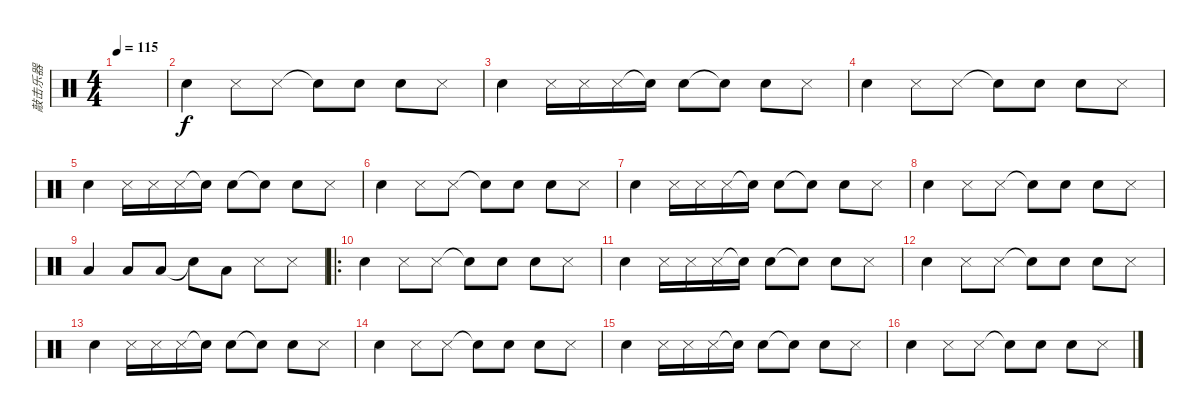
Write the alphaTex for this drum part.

\track ("敲击乐器" "敲击乐器") {instrument percussion}
\staff {score}
\articulation defaults
\ts (4 4)
\tempo 115
\clef neutral
\ks c
|
"Hand Clap (hit)".4 "Snare (side stick) 3".8 "Snare (side stick) 3".8 "Snare (hit)"{t}.8 "Hand Clap (hit)".8 "Hand Clap (hit)".8 "Snare (side stick) 3".8 |
"Hand Clap (hit)".4 "Snare (side stick) 3".16 "Snare (side stick) 3".16 "Snare (side stick) 3".16 "Snare (hit)"{t}.16 "Hand Clap (hit)".8 "Snare (hit)"{t}.8 "Hand Clap (hit)".8 "Snare (side stick) 3".8 |
"Hand Clap (hit)".4 "Snare (side stick) 3".8 "Snare (side stick) 3".8 "Snare (hit)"{t}.8 "Hand Clap (hit)".8 "Hand Clap (hit)".8 "Snare (side stick) 3".8 |
"Hand Clap (hit)".4 "Snare (side stick) 3".16 "Snare (side stick) 3".16 "Snare (side stick) 3".16 "Snare (hit)"{t}.16 "Hand Clap (hit)".8 "Snare (hit)"{t}.8 "Hand Clap (hit)".8 "Snare (side stick) 3".8 |
"Hand Clap (hit)".4 "Snare (side stick) 3".8 "Snare (side stick) 3".8 "Snare (hit)"{t}.8 "Hand Clap (hit)".8 "Hand Clap (hit)".8 "Snare (side stick) 3".8 |
"Hand Clap (hit)".4 "Snare (side stick) 3".16 "Snare (side stick) 3".16 "Snare (side stick) 3".16 "Snare (hit)"{t}.16 "Hand Clap (hit)".8 "Snare (hit)"{t}.8 "Hand Clap (hit)".8 "Snare (side stick) 3".8 |
"Hand Clap (hit)".4 "Snare (side stick) 3".8 "Snare (side stick) 3".8 "Snare (hit)"{t}.8 "Hand Clap (hit)".8 "Hand Clap (hit)".8 "Snare (side stick) 3".8 |
"Low Floor Tom (hit)".4 "Low Floor Tom (hit)".8 "Low Floor Tom (hit)".8 "Snare (hit)"{t}.8 "Low Floor Tom (hit)".8 "Snare (side stick) 3".8 "Snare (side stick) 3".8 |
\ro "Hand Clap (hit)".4 "Snare (side stick) 3".8 "Snare (side stick) 3".8 "Snare (hit)"{t}.8 "Hand Clap (hit)".8 "Hand Clap (hit)".8 "Snare (side stick) 3".8
|
"Hand Clap (hit)".4 "Snare (side stick) 3".16 "Snare (side stick) 3".16 "Snare (side stick) 3".16 "Snare (hit)"{t}.16 "Hand Clap (hit)".8 "Snare (hit)"{t}.8 "Hand Clap (hit)".8 "Snare (side stick) 3".8 |
"Hand Clap (hit)".4 "Snare (side stick) 3".8 "Snare (side stick) 3".8 "Snare (hit)"{t}.8 "Hand Clap (hit)".8 "Hand Clap (hit)".8 "Snare (side stick) 3".8 |
"Hand Clap (hit)".4 "Snare (side stick) 3".16 "Snare (side stick) 3".16 "Snare (side stick) 3".16 "Snare (hit)"{t}.16 "Hand Clap (hit)".8 "Snare (hit)"{t}.8 "Hand Clap (hit)".8 "Snare (side stick) 3".8 |
"Hand Clap (hit)".4 "Snare (side stick) 3".8 "Snare (side stick) 3".8 "Snare (hit)"{t}.8 "Hand Clap (hit)".8 "Hand Clap (hit)".8 "Snare (side stick) 3".8 |
"Hand Clap (hit)".4 "Snare (side stick) 3".16 "Snare (side stick) 3".16 "Snare (side stick) 3".16 "Snare (hit)"{t}.16 "Hand Clap (hit)".8 "Snare (hit)"{t}.8 "Hand Clap (hit)".8 "Snare (side stick) 3".8 |
"Hand Clap (hit)".4 "Snare (side stick) 3".8 "Snare (side stick) 3".8 "Snare (hit)"{t}.8 "Hand Clap (hit)".8 "Hand Clap (hit)".8 "Snare (side stick) 3".8
